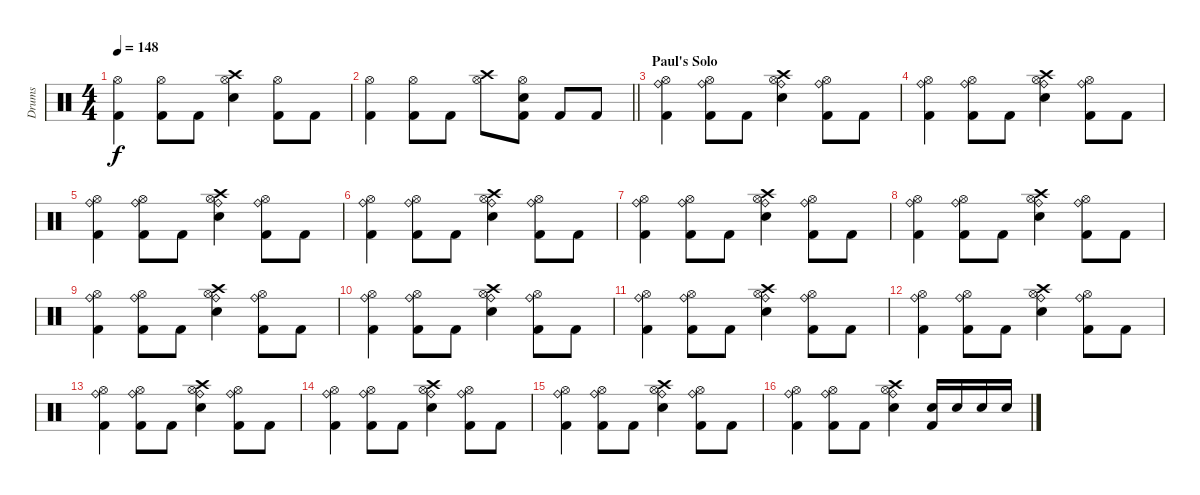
\track ("Drums" "Drums") {instrument percussion}
\staff {score}
\articulation defaults
\ts (4 4)
\tempo 148
\clef neutral
\ks c
("Hi-Hat (open)" "Kick (hit) 2").4{dy f} ("Hi-Hat (open)" "Kick (hit) 2").8 "Kick (hit) 2".8 ("Crash high (hit)" "Hi-Hat (open)" "Snare (hit) 2").4 ("Hi-Hat (open)" "Kick (hit) 2").8 "Kick (hit) 2".8 |
\barLineRight lightlight
("Hi-Hat (open)" "Kick (hit) 2").4 ("Hi-Hat (open)" "Kick (hit) 2").8 "Kick (hit) 2".8 ("Crash high (hit)" "Hi-Hat (open)").8 ("Hi-Hat (open)" "Snare (hit) 2" "Kick (hit) 2").8 "Kick (hit) 2".8 "Kick (hit) 2".8 |
\section ("" "Paul's Solo")
("Ride (bell)" "Hi-Hat (open)" "Kick (hit) 2").4 ("Ride (bell)" "Hi-Hat (open)" "Kick (hit) 2").8 "Kick (hit) 2".8 ("Ride (bell)" "Crash high (hit)" "Hi-Hat (open)" "Snare (hit) 2").4 ("Ride (bell)" "Hi-Hat (open)" "Kick (hit) 2").8 "Kick (hit) 2".8 |
("Ride (bell)" "Hi-Hat (open)" "Kick (hit) 2").4 ("Ride (bell)" "Hi-Hat (open)" "Kick (hit) 2").8 "Kick (hit) 2".8 ("Ride (bell)" "Crash high (hit)" "Hi-Hat (open)" "Snare (hit) 2").4 ("Ride (bell)" "Hi-Hat (open)" "Kick (hit) 2").8 "Kick (hit) 2".8 |
("Ride (bell)" "Hi-Hat (open)" "Kick (hit) 2").4 ("Ride (bell)" "Hi-Hat (open)" "Kick (hit) 2").8 "Kick (hit) 2".8 ("Ride (bell)" "Crash high (hit)" "Hi-Hat (open)" "Snare (hit) 2").4 ("Ride (bell)" "Hi-Hat (open)" "Kick (hit) 2").8 "Kick (hit) 2".8 |
("Ride (bell)" "Hi-Hat (open)" "Kick (hit) 2").4 ("Ride (bell)" "Hi-Hat (open)" "Kick (hit) 2").8 "Kick (hit) 2".8 ("Ride (bell)" "Crash high (hit)" "Hi-Hat (open)" "Snare (hit) 2").4 ("Ride (bell)" "Hi-Hat (open)" "Kick (hit) 2").8 "Kick (hit) 2".8 |
("Ride (bell)" "Hi-Hat (open)" "Kick (hit) 2").4 ("Ride (bell)" "Hi-Hat (open)" "Kick (hit) 2").8 "Kick (hit) 2".8 ("Ride (bell)" "Crash high (hit)" "Hi-Hat (open)" "Snare (hit) 2").4 ("Ride (bell)" "Hi-Hat (open)" "Kick (hit) 2").8 "Kick (hit) 2".8 |
("Ride (bell)" "Hi-Hat (open)" "Kick (hit) 2").4 ("Ride (bell)" "Hi-Hat (open)" "Kick (hit) 2").8 "Kick (hit) 2".8 ("Ride (bell)" "Crash high (hit)" "Hi-Hat (open)" "Snare (hit) 2").4 ("Ride (bell)" "Hi-Hat (open)" "Kick (hit) 2").8 "Kick (hit) 2".8 |
("Ride (bell)" "Hi-Hat (open)" "Kick (hit) 2").4 ("Ride (bell)" "Hi-Hat (open)" "Kick (hit) 2").8 "Kick (hit) 2".8 ("Ride (bell)" "Crash high (hit)" "Hi-Hat (open)" "Snare (hit) 2").4 ("Ride (bell)" "Hi-Hat (open)" "Kick (hit) 2").8 "Kick (hit) 2".8 |
("Ride (bell)" "Hi-Hat (open)" "Kick (hit) 2").4 ("Ride (bell)" "Hi-Hat (open)" "Kick (hit) 2").8 "Kick (hit) 2".8 ("Ride (bell)" "Crash high (hit)" "Hi-Hat (open)" "Snare (hit) 2").4 ("Ride (bell)" "Hi-Hat (open)" "Kick (hit) 2").8 "Kick (hit) 2".8 |
("Ride (bell)" "Hi-Hat (open)" "Kick (hit) 2").4 ("Ride (bell)" "Hi-Hat (open)" "Kick (hit) 2").8 "Kick (hit) 2".8 ("Ride (bell)" "Crash high (hit)" "Hi-Hat (open)" "Snare (hit) 2").4 ("Ride (bell)" "Hi-Hat (open)" "Kick (hit) 2").8 "Kick (hit) 2".8 |
("Ride (bell)" "Hi-Hat (open)" "Kick (hit) 2").4 ("Ride (bell)" "Hi-Hat (open)" "Kick (hit) 2").8 "Kick (hit) 2".8 ("Ride (bell)" "Crash high (hit)" "Hi-Hat (open)" "Snare (hit) 2").4 ("Ride (bell)" "Hi-Hat (open)" "Kick (hit) 2").8 "Kick (hit) 2".8 |
("Ride (bell)" "Hi-Hat (open)" "Kick (hit) 2").4 ("Ride (bell)" "Hi-Hat (open)" "Kick (hit) 2").8 "Kick (hit) 2".8 ("Ride (bell)" "Crash high (hit)" "Hi-Hat (open)" "Snare (hit) 2").4 ("Ride (bell)" "Hi-Hat (open)" "Kick (hit) 2").8 "Kick (hit) 2".8 |
("Ride (bell)" "Hi-Hat (open)" "Kick (hit) 2").4 ("Ride (bell)" "Hi-Hat (open)" "Kick (hit) 2").8 "Kick (hit) 2".8 ("Ride (bell)" "Crash high (hit)" "Hi-Hat (open)" "Snare (hit) 2").4 ("Ride (bell)" "Hi-Hat (open)" "Kick (hit) 2").8 "Kick (hit) 2".8 |
("Ride (bell)" "Hi-Hat (open)" "Kick (hit) 2").4 ("Ride (bell)" "Hi-Hat (open)" "Kick (hit) 2").8 "Kick (hit) 2".8 ("Ride (bell)" "Crash high (hit)" "Hi-Hat (open)" "Snare (hit) 2").4 ("Ride (bell)" "Hi-Hat (open)" "Kick (hit) 2").8 "Kick (hit) 2".8 |
("Ride (bell)" "Hi-Hat (open)" "Kick (hit) 2").4 ("Ride (bell)" "Hi-Hat (open)" "Kick (hit) 2").8 "Kick (hit) 2".8 ("Ride (bell)" "Crash high (hit)" "Hi-Hat (open)" "Snare (hit) 2").4 ("Snare (hit) 2" "Kick (hit) 2").16 "Snare (hit) 2".16 "Snare (hit) 2".16 "Snare (hit) 2".16
